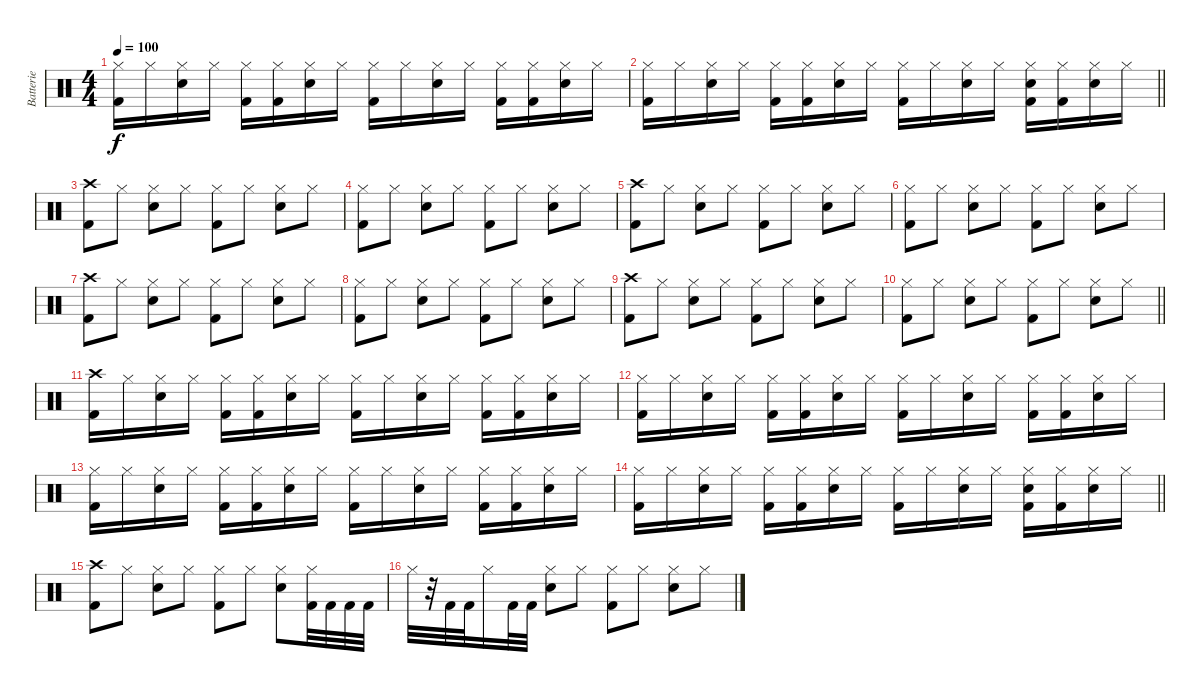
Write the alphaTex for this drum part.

\track ("Batterie" "Batterie") {instrument percussion}
\staff {score}
\articulation defaults
\ts (4 4)
\tempo 100
\clef neutral
\ks c
("Hi-Hat (closed)" "Kick (hit) 2").16{dy f} "Hi-Hat (closed)".16 ("Hi-Hat (closed)" "Snare (hit) 2").16 "Hi-Hat (closed)".16 ("Hi-Hat (closed)" "Kick (hit) 2").16 ("Hi-Hat (closed)" "Kick (hit) 2").16 ("Hi-Hat (closed)" "Snare (hit) 2").16 "Hi-Hat (closed)".16 ("Hi-Hat (closed)" "Kick (hit) 2").16 "Hi-Hat (closed)".16 ("Hi-Hat (closed)" "Snare (hit) 2").16 "Hi-Hat (closed)".16 ("Hi-Hat (closed)" "Kick (hit) 2").16 ("Hi-Hat (closed)" "Kick (hit) 2").16 ("Hi-Hat (closed)" "Snare (hit) 2").16 "Hi-Hat (closed)".16 |
\barLineRight lightlight
("Hi-Hat (closed)" "Kick (hit) 2").16 "Hi-Hat (closed)".16 ("Hi-Hat (closed)" "Snare (hit) 2").16 "Hi-Hat (closed)".16 ("Hi-Hat (closed)" "Kick (hit) 2").16 ("Hi-Hat (closed)" "Kick (hit) 2").16 ("Hi-Hat (closed)" "Snare (hit) 2").16 "Hi-Hat (closed)".16 ("Hi-Hat (closed)" "Kick (hit) 2").16 "Hi-Hat (closed)".16 ("Hi-Hat (closed)" "Snare (hit) 2").16 "Hi-Hat (closed)".16 ("Hi-Hat (closed)" "Snare (hit) 2" "Kick (hit) 2").16 ("Hi-Hat (closed)" "Kick (hit) 2").16 ("Hi-Hat (closed)" "Snare (hit) 2").16 "Hi-Hat (closed)".16 |
\section ("" "")
("Crash high (hit)" "Kick (hit) 2").8 "Hi-Hat (closed)".8 ("Hi-Hat (closed)" "Snare (hit) 2").8 "Hi-Hat (closed)".8 ("Hi-Hat (closed)" "Kick (hit) 2").8 "Hi-Hat (closed)".8 ("Hi-Hat (closed)" "Snare (hit) 2").8 "Hi-Hat (closed)".8 |
("Hi-Hat (closed)" "Kick (hit) 2").8 "Hi-Hat (closed)".8 ("Hi-Hat (closed)" "Snare (hit) 2").8 "Hi-Hat (closed)".8 ("Hi-Hat (closed)" "Kick (hit) 2").8 "Hi-Hat (closed)".8 ("Hi-Hat (closed)" "Snare (hit) 2").8 "Hi-Hat (closed)".8 |
("Crash high (hit)" "Kick (hit) 2").8 "Hi-Hat (closed)".8 ("Hi-Hat (closed)" "Snare (hit) 2").8 "Hi-Hat (closed)".8 ("Hi-Hat (closed)" "Kick (hit) 2").8 "Hi-Hat (closed)".8 ("Hi-Hat (closed)" "Snare (hit) 2").8 "Hi-Hat (closed)".8 |
("Hi-Hat (closed)" "Kick (hit) 2").8 "Hi-Hat (closed)".8 ("Hi-Hat (closed)" "Snare (hit) 2").8 "Hi-Hat (closed)".8 ("Hi-Hat (closed)" "Kick (hit) 2").8 "Hi-Hat (closed)".8 ("Hi-Hat (closed)" "Snare (hit) 2").8 "Hi-Hat (closed)".8 |
("Crash high (hit)" "Kick (hit) 2").8 "Hi-Hat (closed)".8 ("Hi-Hat (closed)" "Snare (hit) 2").8 "Hi-Hat (closed)".8 ("Hi-Hat (closed)" "Kick (hit) 2").8 "Hi-Hat (closed)".8 ("Hi-Hat (closed)" "Snare (hit) 2").8 "Hi-Hat (closed)".8 |
("Hi-Hat (closed)" "Kick (hit) 2").8 "Hi-Hat (closed)".8 ("Hi-Hat (closed)" "Snare (hit) 2").8 "Hi-Hat (closed)".8 ("Hi-Hat (closed)" "Kick (hit) 2").8 "Hi-Hat (closed)".8 ("Hi-Hat (closed)" "Snare (hit) 2").8 "Hi-Hat (closed)".8 |
("Crash high (hit)" "Kick (hit) 2").8 "Hi-Hat (closed)".8 ("Hi-Hat (closed)" "Snare (hit) 2").8 "Hi-Hat (closed)".8 ("Hi-Hat (closed)" "Kick (hit) 2").8 "Hi-Hat (closed)".8 ("Hi-Hat (closed)" "Snare (hit) 2").8 "Hi-Hat (closed)".8 |
\barLineRight lightlight
("Hi-Hat (closed)" "Kick (hit) 2").8 "Hi-Hat (closed)".8 ("Hi-Hat (closed)" "Snare (hit) 2").8 "Hi-Hat (closed)".8 ("Hi-Hat (closed)" "Kick (hit) 2").8 "Hi-Hat (closed)".8 ("Hi-Hat (closed)" "Snare (hit) 2").8 "Hi-Hat (closed)".8 |
\section ("" "")
("Crash high (hit)" "Kick (hit) 2").16 "Hi-Hat (closed)".16 ("Hi-Hat (closed)" "Snare (hit) 2").16 "Hi-Hat (closed)".16 ("Hi-Hat (closed)" "Kick (hit) 2").16 ("Hi-Hat (closed)" "Kick (hit) 2").16 ("Hi-Hat (closed)" "Snare (hit) 2").16 "Hi-Hat (closed)".16 ("Hi-Hat (closed)" "Kick (hit) 2").16 "Hi-Hat (closed)".16 ("Hi-Hat (closed)" "Snare (hit) 2").16 "Hi-Hat (closed)".16 ("Hi-Hat (closed)" "Kick (hit) 2").16 ("Hi-Hat (closed)" "Kick (hit) 2").16 ("Hi-Hat (closed)" "Snare (hit) 2").16 "Hi-Hat (closed)".16 |
("Hi-Hat (closed)" "Kick (hit) 2").16 "Hi-Hat (closed)".16 ("Hi-Hat (closed)" "Snare (hit) 2").16 "Hi-Hat (closed)".16 ("Hi-Hat (closed)" "Kick (hit) 2").16 ("Hi-Hat (closed)" "Kick (hit) 2").16 ("Hi-Hat (closed)" "Snare (hit) 2").16 "Hi-Hat (closed)".16 ("Hi-Hat (closed)" "Kick (hit) 2").16 "Hi-Hat (closed)".16 ("Hi-Hat (closed)" "Snare (hit) 2").16 "Hi-Hat (closed)".16 ("Hi-Hat (closed)" "Kick (hit) 2").16 ("Hi-Hat (closed)" "Kick (hit) 2").16 ("Hi-Hat (closed)" "Snare (hit) 2").16 "Hi-Hat (closed)".16 |
("Hi-Hat (closed)" "Kick (hit) 2").16 "Hi-Hat (closed)".16 ("Hi-Hat (closed)" "Snare (hit) 2").16 "Hi-Hat (closed)".16 ("Hi-Hat (closed)" "Kick (hit) 2").16 ("Hi-Hat (closed)" "Kick (hit) 2").16 ("Hi-Hat (closed)" "Snare (hit) 2").16 "Hi-Hat (closed)".16 ("Hi-Hat (closed)" "Kick (hit) 2").16 "Hi-Hat (closed)".16 ("Hi-Hat (closed)" "Snare (hit) 2").16 "Hi-Hat (closed)".16 ("Hi-Hat (closed)" "Kick (hit) 2").16 ("Hi-Hat (closed)" "Kick (hit) 2").16 ("Hi-Hat (closed)" "Snare (hit) 2").16 "Hi-Hat (closed)".16 |
\barLineRight lightlight
("Hi-Hat (closed)" "Kick (hit) 2").16 "Hi-Hat (closed)".16 ("Hi-Hat (closed)" "Snare (hit) 2").16 "Hi-Hat (closed)".16 ("Hi-Hat (closed)" "Kick (hit) 2").16 ("Hi-Hat (closed)" "Kick (hit) 2").16 ("Hi-Hat (closed)" "Snare (hit) 2").16 "Hi-Hat (closed)".16 ("Hi-Hat (closed)" "Kick (hit) 2").16 "Hi-Hat (closed)".16 ("Hi-Hat (closed)" "Snare (hit) 2").16 "Hi-Hat (closed)".16 ("Hi-Hat (closed)" "Snare (hit) 2" "Kick (hit) 2").16 ("Hi-Hat (closed)" "Kick (hit) 2").16 ("Hi-Hat (closed)" "Snare (hit) 2").16 "Hi-Hat (closed)".16 |
\section ("" "")
("Crash high (hit)" "Kick (hit) 2").8 "Hi-Hat (closed)".8 ("Hi-Hat (closed)" "Snare (hit) 2").8 "Hi-Hat (closed)".8 ("Hi-Hat (closed)" "Kick (hit) 2").8 "Hi-Hat (closed)".8 ("Hi-Hat (closed)" "Snare (hit) 2").8 ("Hi-Hat (closed)" "Kick (hit) 2").32 "Kick (hit) 2".32 "Kick (hit) 2".32 "Kick (hit) 2".32 |
"Hi-Hat (closed)".32 r.32 "Kick (hit) 2".32 "Kick (hit) 2".32 "Hi-Hat (closed)".16 "Kick (hit) 2".32 "Kick (hit) 2".32 ("Hi-Hat (closed)" "Snare (hit) 2").8 "Hi-Hat (closed)".8 ("Hi-Hat (closed)" "Kick (hit) 2").8 "Hi-Hat (closed)".8 ("Hi-Hat (closed)" "Snare (hit) 2").8 "Hi-Hat (closed)".8
